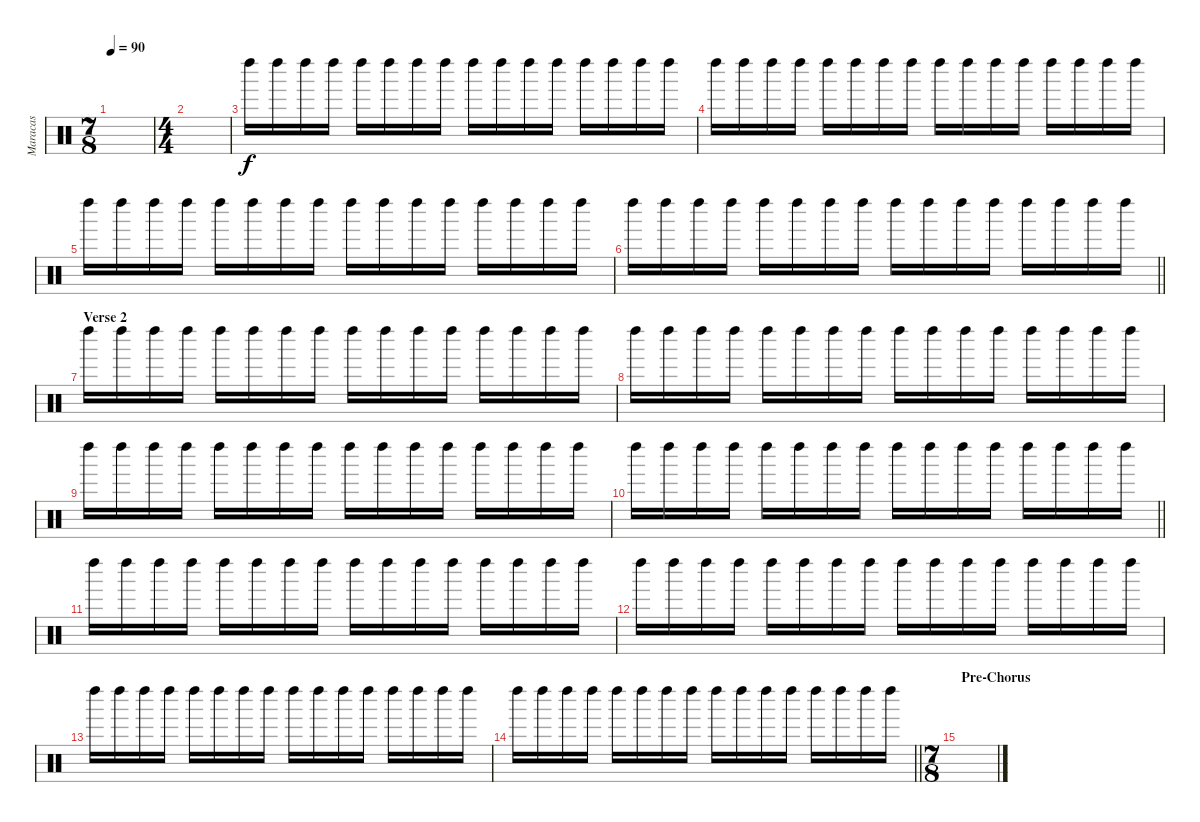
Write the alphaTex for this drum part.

\track ("Maracas" "Maracas") {instrument percussion}
\staff {score}
\articulation defaults
\ts (7 8)
\tempo 90
\clef neutral
\ks c
|
\ts (4 4)
|
"Left Maraca (hit)".16 "Left Maraca (hit)".16 "Left Maraca (hit)".16 "Left Maraca (hit)".16 "Left Maraca (hit)".16 "Left Maraca (hit)".16 "Left Maraca (hit)".16 "Left Maraca (hit)".16 "Left Maraca (hit)".16 "Left Maraca (hit)".16 "Left Maraca (hit)".16 "Left Maraca (hit)".16 "Left Maraca (hit)".16 "Left Maraca (hit)".16 "Left Maraca (hit)".16 "Left Maraca (hit)".16 |
"Left Maraca (hit)".16 "Left Maraca (hit)".16 "Left Maraca (hit)".16 "Left Maraca (hit)".16 "Left Maraca (hit)".16 "Left Maraca (hit)".16 "Left Maraca (hit)".16 "Left Maraca (hit)".16 "Left Maraca (hit)".16 "Left Maraca (hit)".16 "Left Maraca (hit)".16 "Left Maraca (hit)".16 "Left Maraca (hit)".16 "Left Maraca (hit)".16 "Left Maraca (hit)".16 "Left Maraca (hit)".16 |
"Left Maraca (hit)".16 "Left Maraca (hit)".16 "Left Maraca (hit)".16 "Left Maraca (hit)".16 "Left Maraca (hit)".16 "Left Maraca (hit)".16 "Left Maraca (hit)".16 "Left Maraca (hit)".16 "Left Maraca (hit)".16 "Left Maraca (hit)".16 "Left Maraca (hit)".16 "Left Maraca (hit)".16 "Left Maraca (hit)".16 "Left Maraca (hit)".16 "Left Maraca (hit)".16 "Left Maraca (hit)".16 |
\barLineRight lightlight "Left Maraca (hit)".16 "Left Maraca (hit)".16 "Left Maraca (hit)".16 "Left Maraca (hit)".16 "Left Maraca (hit)".16 "Left Maraca (hit)".16 "Left Maraca (hit)".16 "Left Maraca (hit)".16 "Left Maraca (hit)".16 "Left Maraca (hit)".16 "Left Maraca (hit)".16 "Left Maraca (hit)".16 "Left Maraca (hit)".16 "Left Maraca (hit)".16 "Left Maraca (hit)".16 "Left Maraca (hit)".16
|
\section ("" "Verse 2")
"Left Maraca (hit)".16 "Left Maraca (hit)".16 "Left Maraca (hit)".16 "Left Maraca (hit)".16 "Left Maraca (hit)".16 "Left Maraca (hit)".16 "Left Maraca (hit)".16 "Left Maraca (hit)".16 "Left Maraca (hit)".16 "Left Maraca (hit)".16 "Left Maraca (hit)".16 "Left Maraca (hit)".16 "Left Maraca (hit)".16 "Left Maraca (hit)".16 "Left Maraca (hit)".16 "Left Maraca (hit)".16 |
"Left Maraca (hit)".16 "Left Maraca (hit)".16 "Left Maraca (hit)".16 "Left Maraca (hit)".16 "Left Maraca (hit)".16 "Left Maraca (hit)".16 "Left Maraca (hit)".16 "Left Maraca (hit)".16 "Left Maraca (hit)".16 "Left Maraca (hit)".16 "Left Maraca (hit)".16 "Left Maraca (hit)".16 "Left Maraca (hit)".16 "Left Maraca (hit)".16 "Left Maraca (hit)".16 "Left Maraca (hit)".16 |
"Left Maraca (hit)".16 "Left Maraca (hit)".16 "Left Maraca (hit)".16 "Left Maraca (hit)".16 "Left Maraca (hit)".16 "Left Maraca (hit)".16 "Left Maraca (hit)".16 "Left Maraca (hit)".16 "Left Maraca (hit)".16 "Left Maraca (hit)".16 "Left Maraca (hit)".16 "Left Maraca (hit)".16 "Left Maraca (hit)".16 "Left Maraca (hit)".16 "Left Maraca (hit)".16 "Left Maraca (hit)".16 |
\barLineRight lightlight "Left Maraca (hit)".16 "Left Maraca (hit)".16 "Left Maraca (hit)".16 "Left Maraca (hit)".16 "Left Maraca (hit)".16 "Left Maraca (hit)".16 "Left Maraca (hit)".16 "Left Maraca (hit)".16 "Left Maraca (hit)".16 "Left Maraca (hit)".16 "Left Maraca (hit)".16 "Left Maraca (hit)".16 "Left Maraca (hit)".16 "Left Maraca (hit)".16 "Left Maraca (hit)".16 "Left Maraca (hit)".16
|
"Left Maraca (hit)".16 "Left Maraca (hit)".16 "Left Maraca (hit)".16 "Left Maraca (hit)".16 "Left Maraca (hit)".16 "Left Maraca (hit)".16 "Left Maraca (hit)".16 "Left Maraca (hit)".16 "Left Maraca (hit)".16 "Left Maraca (hit)".16 "Left Maraca (hit)".16 "Left Maraca (hit)".16 "Left Maraca (hit)".16 "Left Maraca (hit)".16 "Left Maraca (hit)".16 "Left Maraca (hit)".16 |
"Left Maraca (hit)".16 "Left Maraca (hit)".16 "Left Maraca (hit)".16 "Left Maraca (hit)".16 "Left Maraca (hit)".16 "Left Maraca (hit)".16 "Left Maraca (hit)".16 "Left Maraca (hit)".16 "Left Maraca (hit)".16 "Left Maraca (hit)".16 "Left Maraca (hit)".16 "Left Maraca (hit)".16 "Left Maraca (hit)".16 "Left Maraca (hit)".16 "Left Maraca (hit)".16 "Left Maraca (hit)".16 |
"Left Maraca (hit)".16 "Left Maraca (hit)".16 "Left Maraca (hit)".16 "Left Maraca (hit)".16 "Left Maraca (hit)".16 "Left Maraca (hit)".16 "Left Maraca (hit)".16 "Left Maraca (hit)".16 "Left Maraca (hit)".16 "Left Maraca (hit)".16 "Left Maraca (hit)".16 "Left Maraca (hit)".16 "Left Maraca (hit)".16 "Left Maraca (hit)".16 "Left Maraca (hit)".16 "Left Maraca (hit)".16 |
\barLineRight lightlight "Left Maraca (hit)".16 "Left Maraca (hit)".16 "Left Maraca (hit)".16 "Left Maraca (hit)".16 "Left Maraca (hit)".16 "Left Maraca (hit)".16 "Left Maraca (hit)".16 "Left Maraca (hit)".16 "Left Maraca (hit)".16 "Left Maraca (hit)".16 "Left Maraca (hit)".16 "Left Maraca (hit)".16 "Left Maraca (hit)".16 "Left Maraca (hit)".16 "Left Maraca (hit)".16 "Left Maraca (hit)".16
|
\ts (7 8)
\section ("" "Pre-Chorus")
